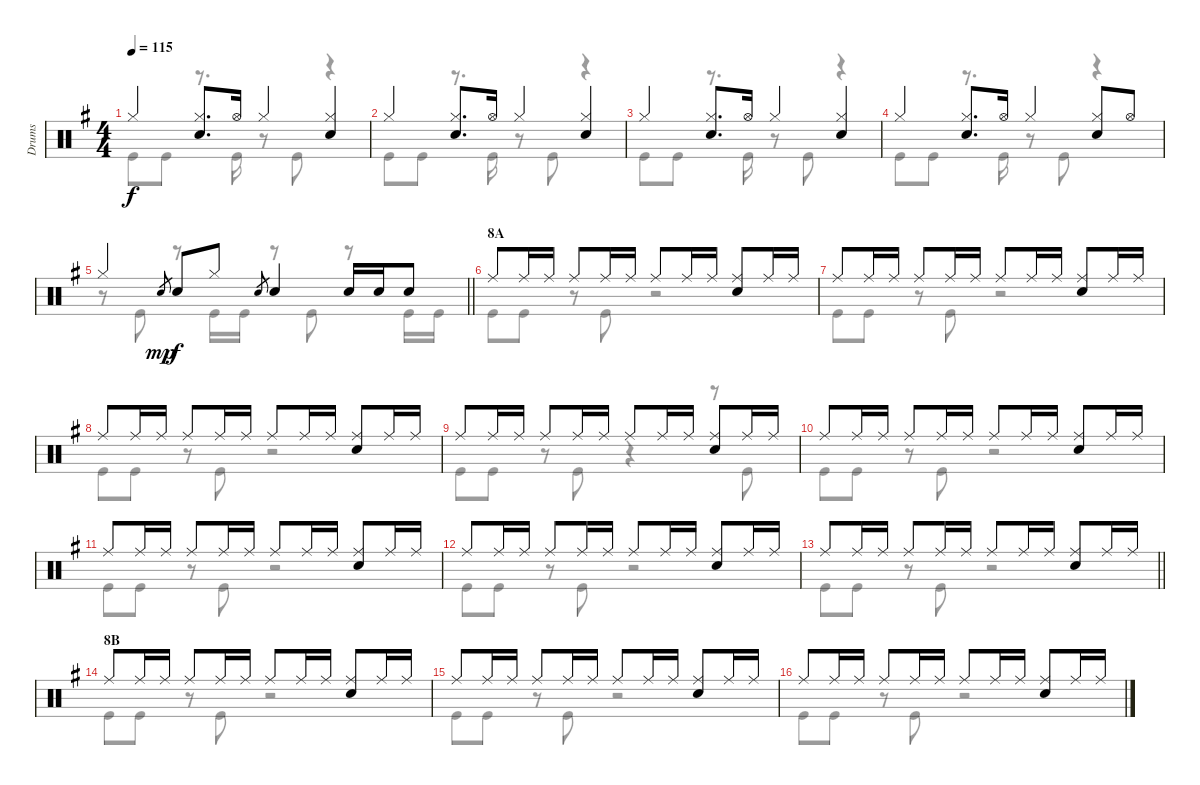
\track ("Drums" "Drums") {instrument percussion}
\staff {score}
\articulation defaults
\voice
\ts (4 4)
\tempo 115
\clef neutral
\ks g "Hi-Hat (closed)".4{dy f}
("Hi-Hat (closed)" "Snare (hit) 2").8{d} "Hi-Hat (open)".16 "Hi-Hat (closed)".4 ("Hi-Hat (closed)" "Snare (hit) 2").4 |
"Hi-Hat (closed)".4 ("Hi-Hat (closed)" "Snare (hit) 2").8{d} "Hi-Hat (open)".16 "Hi-Hat (closed)".4 ("Hi-Hat (closed)" "Snare (hit) 2").4 |
"Hi-Hat (closed)".4 ("Hi-Hat (closed)" "Snare (hit) 2").8{d} "Hi-Hat (open)".16 "Hi-Hat (closed)".4 ("Hi-Hat (closed)" "Snare (hit) 2").4 |
"Hi-Hat (closed)".4 ("Hi-Hat (closed)" "Snare (hit) 2").8{d} "Hi-Hat (open)".16 "Hi-Hat (closed)".4 ("Hi-Hat (closed)" "Snare (hit) 2").8 "Hi-Hat (open)".8 |
\barLineRight lightlight "Hi-Hat (closed)".4 "Snare (hit) 2".8{gr dy mp} "Snare (hit) 2".8{dy f} "Hi-Hat (closed)".8 "Snare (hit) 2".8{gr} "Snare (hit) 2".4 "Snare (hit) 2".16 "Snare (hit) 2".16 "Snare (hit) 2".8
|
\section ("" "8A")
"Ride (middle)".8 "Ride (middle)".16 "Ride (middle)".16 "Ride (middle)".8 "Ride (middle)".16 "Ride (middle)".16 "Ride (middle)".8 "Ride (middle)".16 "Ride (middle)".16 ("Ride (middle)" "Snare (hit) 2").8 "Ride (middle)".16 "Ride (middle)".16 |
"Ride (middle)".8 "Ride (middle)".16 "Ride (middle)".16 "Ride (middle)".8 "Ride (middle)".16 "Ride (middle)".16 "Ride (middle)".8 "Ride (middle)".16 "Ride (middle)".16 ("Ride (middle)" "Snare (hit) 2").8 "Ride (middle)".16 "Ride (middle)".16 |
"Ride (middle)".8 "Ride (middle)".16 "Ride (middle)".16 "Ride (middle)".8 "Ride (middle)".16 "Ride (middle)".16 "Ride (middle)".8 "Ride (middle)".16 "Ride (middle)".16 ("Ride (middle)" "Snare (hit) 2").8 "Ride (middle)".16 "Ride (middle)".16 |
"Ride (middle)".8 "Ride (middle)".16 "Ride (middle)".16 "Ride (middle)".8 "Ride (middle)".16 "Ride (middle)".16 "Ride (middle)".8 "Ride (middle)".16 "Ride (middle)".16 ("Ride (middle)" "Snare (hit) 2").8 "Ride (middle)".16 "Ride (middle)".16 |
"Ride (middle)".8 "Ride (middle)".16 "Ride (middle)".16 "Ride (middle)".8 "Ride (middle)".16 "Ride (middle)".16 "Ride (middle)".8 "Ride (middle)".16 "Ride (middle)".16 ("Ride (middle)" "Snare (hit) 2").8 "Ride (middle)".16 "Ride (middle)".16 |
"Ride (middle)".8 "Ride (middle)".16 "Ride (middle)".16 "Ride (middle)".8 "Ride (middle)".16 "Ride (middle)".16 "Ride (middle)".8 "Ride (middle)".16 "Ride (middle)".16 ("Ride (middle)" "Snare (hit) 2").8 "Ride (middle)".16 "Ride (middle)".16 |
"Ride (middle)".8 "Ride (middle)".16 "Ride (middle)".16 "Ride (middle)".8 "Ride (middle)".16 "Ride (middle)".16 "Ride (middle)".8 "Ride (middle)".16 "Ride (middle)".16 ("Ride (middle)" "Snare (hit) 2").8 "Ride (middle)".16 "Ride (middle)".16 |
\barLineRight lightlight "Ride (middle)".8 "Ride (middle)".16 "Ride (middle)".16 "Ride (middle)".8 "Ride (middle)".16 "Ride (middle)".16 "Ride (middle)".8 "Ride (middle)".16 "Ride (middle)".16
("Ride (middle)" "Snare (hit) 2").8 "Ride (middle)".16 "Ride (middle)".16 |
\section ("" "8B")
"Ride (middle)".8 "Ride (middle)".16 "Ride (middle)".16 "Ride (middle)".8 "Ride (middle)".16 "Ride (middle)".16 "Ride (middle)".8 "Ride (middle)".16 "Ride (middle)".16 ("Ride (middle)" "Snare (hit) 2").8 "Ride (middle)".16 "Ride (middle)".16 |
"Ride (middle)".8 "Ride (middle)".16 "Ride (middle)".16 "Ride (middle)".8 "Ride (middle)".16 "Ride (middle)".16 "Ride (middle)".8 "Ride (middle)".16 "Ride (middle)".16 ("Ride (middle)" "Snare (hit) 2").8 "Ride (middle)".16 "Ride (middle)".16 |
"Ride (middle)".8 "Ride (middle)".16 "Ride (middle)".16 "Ride (middle)".8 "Ride (middle)".16 "Ride (middle)".16 "Ride (middle)".8 "Ride (middle)".16 "Ride (middle)".16 ("Ride (middle)" "Snare (hit) 2").8 "Ride (middle)".16 "Ride (middle)".16
\voice
\clef neutral
\ottava regular
\simile none
\ks g "Kick (hit)".8{dy f} "Kick (hit)".8
r.8{d} "Kick (hit)".16 r.8 "Kick (hit)".8 r.4 |
"Kick (hit)".8 "Kick (hit)".8 r.8{d} "Kick (hit)".16 r.8 "Kick (hit)".8 r.4 |
"Kick (hit)".8 "Kick (hit)".8 r.8{d} "Kick (hit)".16 r.8 "Kick (hit)".8 r.4 |
"Kick (hit)".8 "Kick (hit)".8 r.8{d} "Kick (hit)".16 r.8 "Kick (hit)".8 r.4 |
\barLineRight lightlight
r.8 "Kick (hit)".8 r.8 "Kick (hit)".16 "Kick (hit)".16 r.8 "Kick (hit)".8 r.8 "Kick (hit)".16 "Kick (hit)".16 |
"Kick (hit)".8 "Kick (hit)".8 r.8 "Kick (hit)".8 r.2 |
"Kick (hit)".8 "Kick (hit)".8 r.8 "Kick (hit)".8 r.2 |
"Kick (hit)".8 "Kick (hit)".8 r.8 "Kick (hit)".8 r.2 |
"Kick (hit)".8 "Kick (hit)".8 r.8 "Kick (hit)".8 r.4 r.8 "Kick (hit)".8 |
"Kick (hit)".8 "Kick (hit)".8 r.8 "Kick (hit)".8 r.2 |
"Kick (hit)".8 "Kick (hit)".8 r.8 "Kick (hit)".8 r.2 |
"Kick (hit)".8 "Kick (hit)".8 r.8 "Kick (hit)".8 r.2 |
\barLineRight lightlight "Kick (hit)".8 "Kick (hit)".8
r.8 "Kick (hit)".8 r.2 |
"Kick (hit)".8 "Kick (hit)".8 r.8 "Kick (hit)".8 r.2 |
"Kick (hit)".8 "Kick (hit)".8 r.8 "Kick (hit)".8 r.2 |
"Kick (hit)".8 "Kick (hit)".8 r.8 "Kick (hit)".8 r.2
